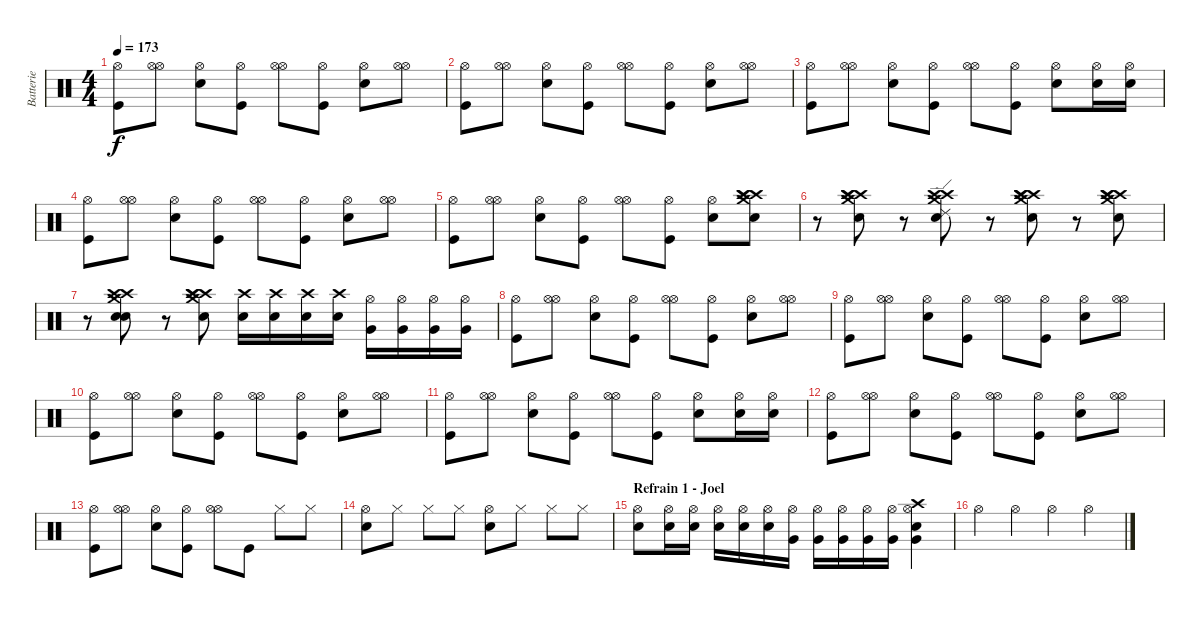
\track ("Batterie" "Batterie") {instrument percussion}
\staff {score}
\articulation defaults
\ts (4 4)
\tempo 173
\clef neutral
\ks c
("Kick (hit)" "Hi-Hat (open)").8{dy f} ("Hi-Hat (open)" "Hi-Hat (open)").8 ("Electric Snare (hit)" "Hi-Hat (open)").8 ("Kick (hit)" "Hi-Hat (open)").8 ("Hi-Hat (open)" "Hi-Hat (open)").8 ("Kick (hit)" "Hi-Hat (open)").8 ("Electric Snare (hit)" "Hi-Hat (open)").8 ("Hi-Hat (open)" "Hi-Hat (open)").8 |
("Kick (hit)" "Hi-Hat (open)").8 ("Hi-Hat (open)" "Hi-Hat (open)").8 ("Electric Snare (hit)" "Hi-Hat (open)").8 ("Kick (hit)" "Hi-Hat (open)").8 ("Hi-Hat (open)" "Hi-Hat (open)").8 ("Kick (hit)" "Hi-Hat (open)").8 ("Electric Snare (hit)" "Hi-Hat (open)").8 ("Hi-Hat (open)" "Hi-Hat (open)").8 |
("Kick (hit)" "Hi-Hat (open)").8 ("Hi-Hat (open)" "Hi-Hat (open)").8 ("Electric Snare (hit)" "Hi-Hat (open)").8 ("Kick (hit)" "Hi-Hat (open)").8 ("Hi-Hat (open)" "Hi-Hat (open)").8 ("Kick (hit)" "Hi-Hat (open)").8 ("Electric Snare (hit)" "Hi-Hat (open)").8 ("Electric Snare (hit)" "Hi-Hat (open)").16 ("Electric Snare (hit)" "Hi-Hat (open)").16 |
("Kick (hit)" "Hi-Hat (open)").8 ("Hi-Hat (open)" "Hi-Hat (open)").8 ("Electric Snare (hit)" "Hi-Hat (open)").8 ("Kick (hit)" "Hi-Hat (open)").8 ("Hi-Hat (open)" "Hi-Hat (open)").8 ("Kick (hit)" "Hi-Hat (open)").8 ("Electric Snare (hit)" "Hi-Hat (open)").8 ("Hi-Hat (open)" "Hi-Hat (open)").8 |
("Kick (hit)" "Hi-Hat (open)").8 ("Hi-Hat (open)" "Hi-Hat (open)").8 ("Electric Snare (hit)" "Hi-Hat (open)").8 ("Kick (hit)" "Hi-Hat (open)").8 ("Hi-Hat (open)" "Hi-Hat (open)").8 ("Kick (hit)" "Hi-Hat (open)").8 ("Electric Snare (hit)" "Hi-Hat (open)").8 ("Crash high (hit)" "Crash high (hit)" "Crash high (hit)" "Crash medium (hit)" "Electric Snare (hit)").8 |
r.8 ("Crash high (hit)" "Crash high (hit)" "Crash high (hit)" "Crash medium (hit)" "Electric Snare (hit)").8 r.8 ("Crash high (hit)" "Crash high (hit)" "Ride (edge) 2" "Crash medium (hit)" "Electric Snare (hit)").8 r.8 ("Crash high (hit)" "Crash high (hit)" "Crash high (hit)" "Crash medium (hit)" "Electric Snare (hit)").8 r.8 ("Crash high (hit)" "Crash high (hit)" "Crash high (hit)" "Crash medium (hit)" "Electric Snare (hit)").8 |
r.8 ("Crash high (hit)" "Crash high (hit)" "Snare (hit)" "Crash medium (hit)" "Electric Snare (hit)").8 r.8 ("Crash high (hit)" "Crash high (hit)" "Crash high (hit)" "Crash medium (hit)" "Electric Snare (hit)").8 ("Electric Snare (hit)" "Crash high (hit)").16 ("Electric Snare (hit)" "Crash high (hit)").16 ("Electric Snare (hit)" "Crash high (hit)").16 ("Electric Snare (hit)" "Crash high (hit)").16 ("Very Low Tom (hit)" "Hi-Hat (open)").16 ("Very Low Tom (hit)" "Hi-Hat (open)").16 ("Very Low Tom (hit)" "Hi-Hat (open)").16 ("Very Low Tom (hit)" "Hi-Hat (open)").16 |
("Kick (hit)" "Hi-Hat (open)").8 ("Hi-Hat (open)" "Hi-Hat (open)").8 ("Electric Snare (hit)" "Hi-Hat (open)").8 ("Kick (hit)" "Hi-Hat (open)").8 ("Hi-Hat (open)" "Hi-Hat (open)").8 ("Kick (hit)" "Hi-Hat (open)").8 ("Electric Snare (hit)" "Hi-Hat (open)").8 ("Hi-Hat (open)" "Hi-Hat (open)").8 |
("Kick (hit)" "Hi-Hat (open)").8 ("Hi-Hat (open)" "Hi-Hat (open)").8 ("Electric Snare (hit)" "Hi-Hat (open)").8 ("Kick (hit)" "Hi-Hat (open)").8 ("Hi-Hat (open)" "Hi-Hat (open)").8 ("Kick (hit)" "Hi-Hat (open)").8 ("Electric Snare (hit)" "Hi-Hat (open)").8 ("Hi-Hat (open)" "Hi-Hat (open)").8 |
("Kick (hit)" "Hi-Hat (open)").8 ("Hi-Hat (open)" "Hi-Hat (open)").8 ("Electric Snare (hit)" "Hi-Hat (open)").8 ("Kick (hit)" "Hi-Hat (open)").8 ("Hi-Hat (open)" "Hi-Hat (open)").8 ("Kick (hit)" "Hi-Hat (open)").8 ("Electric Snare (hit)" "Hi-Hat (open)").8 ("Hi-Hat (open)" "Hi-Hat (open)").8 |
("Kick (hit)" "Hi-Hat (open)").8 ("Hi-Hat (open)" "Hi-Hat (open)").8 ("Electric Snare (hit)" "Hi-Hat (open)").8 ("Kick (hit)" "Hi-Hat (open)").8 ("Hi-Hat (open)" "Hi-Hat (open)").8 ("Kick (hit)" "Hi-Hat (open)").8 ("Electric Snare (hit)" "Hi-Hat (open)").8 ("Electric Snare (hit)" "Hi-Hat (open)").16 ("Electric Snare (hit)" "Hi-Hat (open)").16 |
("Kick (hit)" "Hi-Hat (open)").8 ("Hi-Hat (open)" "Hi-Hat (open)").8 ("Electric Snare (hit)" "Hi-Hat (open)").8 ("Kick (hit)" "Hi-Hat (open)").8 ("Hi-Hat (open)" "Hi-Hat (open)").8 ("Kick (hit)" "Hi-Hat (open)").8 ("Electric Snare (hit)" "Hi-Hat (open)").8 ("Hi-Hat (open)" "Hi-Hat (open)").8 |
("Kick (hit)" "Hi-Hat (open)").8 ("Hi-Hat (open)" "Hi-Hat (open)").8 ("Electric Snare (hit)" "Hi-Hat (open)").8 ("Kick (hit)" "Hi-Hat (open)").8 ("Hi-Hat (open)" "Hi-Hat (open)").8 "Kick (hit)".8 "Hi-Hat (closed)".8 "Hi-Hat (closed)".8 |
("Electric Snare (hit)" "Hi-Hat (open)").8 "Hi-Hat (closed)".8 "Hi-Hat (closed)".8 "Hi-Hat (closed)".8 ("Electric Snare (hit)" "Hi-Hat (open)").8 "Hi-Hat (closed)".8 "Hi-Hat (closed)".8 "Hi-Hat (closed)".8 |
\section ("" "Refrain 1 - Joel")
("Electric Snare (hit)" "Hi-Hat (open)").8 ("Electric Snare (hit)" "Hi-Hat (open)").16 ("Electric Snare (hit)" "Hi-Hat (open)").16 ("Electric Snare (hit)" "Hi-Hat (open)").16 ("Electric Snare (hit)" "Hi-Hat (open)").16 ("Electric Snare (hit)" "Hi-Hat (open)").16 ("Very Low Tom (hit)" "Hi-Hat (open)").16 ("Very Low Tom (hit)" "Hi-Hat (open)").16 ("Very Low Tom (hit)" "Hi-Hat (open)").16 ("Very Low Tom (hit)" "Hi-Hat (open)").16 ("Very Low Tom (hit)" "Hi-Hat (open)").16 ("Crash high (hit)" "Hi-Hat (open)" "Electric Snare (hit)" "Very Low Tom (hit)").4 |
"Hi-Hat (open)".4 "Hi-Hat (open)".4 "Hi-Hat (open)".4 "Hi-Hat (open)".4
